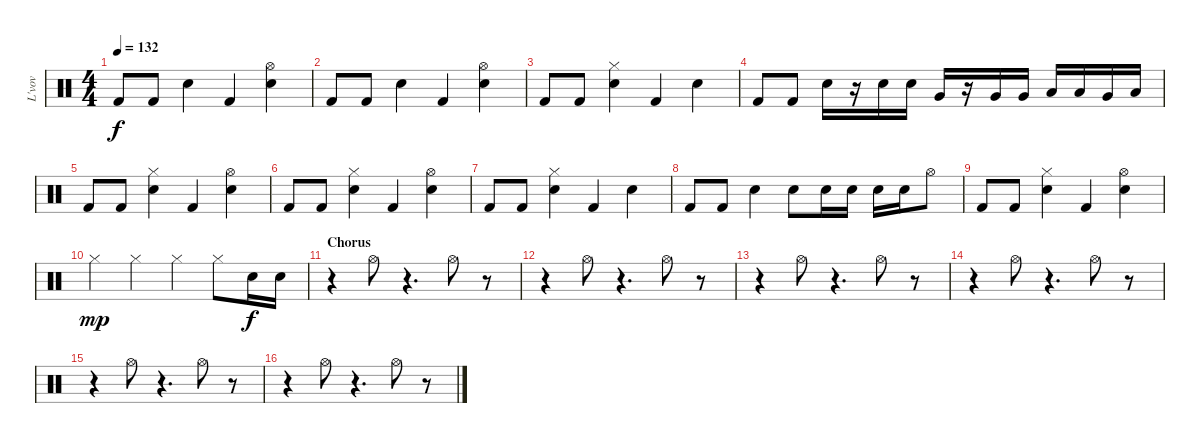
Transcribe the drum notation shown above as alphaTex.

\track ("L'vov" "L'vov") {instrument percussion}
\staff {score}
\articulation defaults
\ts (4 4)
\tempo 132
\clef neutral
\ks c "Kick (hit) 2".8{dy f} "Kick (hit) 2".8 "Snare (hit) 2".4 "Kick (hit) 2".4
("Snare (hit) 2" "Hi-Hat (open)").4 |
"Kick (hit) 2".8 "Kick (hit) 2".8 "Snare (hit) 2".4 "Kick (hit) 2".4 ("Snare (hit) 2" "Hi-Hat (open)").4 |
"Kick (hit) 2".8 "Kick (hit) 2".8 ("Snare (hit) 2" "Hi-Hat (closed)").4 "Kick (hit) 2".4 "Snare (hit) 2".4 |
"Kick (hit) 2".8 "Kick (hit) 2".8 "Snare (hit) 2".16 r.16 "Snare (hit) 2".16 "Snare (hit) 2".16 "Very Low Tom (hit)".16 r.16 "Very Low Tom (hit)".16 "Very Low Tom (hit)".16 "Low Floor Tom (hit)".16 "Low Floor Tom (hit)".16 "Very Low Tom (hit)".16 "Low Tom (hit)".16 |
"Kick (hit) 2".8 "Kick (hit) 2".8 ("Snare (hit) 2" "Hi-Hat (closed)").4 "Kick (hit) 2".4 ("Snare (hit) 2" "Hi-Hat (open)").4 |
"Kick (hit) 2".8 "Kick (hit) 2".8 ("Snare (hit) 2" "Hi-Hat (closed)").4 "Kick (hit) 2".4 ("Snare (hit) 2" "Hi-Hat (open)").4 |
"Kick (hit) 2".8 "Kick (hit) 2".8 ("Snare (hit) 2" "Hi-Hat (closed)").4 "Kick (hit) 2".4 "Snare (hit) 2".4 |
"Kick (hit) 2".8 "Kick (hit) 2".8 "Snare (hit) 2".4 "Snare (hit) 2".8 "Snare (hit) 2".16 "Snare (hit) 2".16 "Snare (hit) 2".16 "Snare (hit) 2".16 "Hi-Hat (open)".8 |
"Kick (hit) 2".8 "Kick (hit) 2".8 ("Snare (hit) 2" "Hi-Hat (closed)").4 "Kick (hit) 2".4 ("Snare (hit) 2" "Hi-Hat (open)").4 |
"Hi-Hat (closed)".4{dy mp} "Hi-Hat (closed)".4 "Hi-Hat (closed)".4 "Hi-Hat (closed)".8 "Snare (hit) 2".16{dy f} "Snare (hit) 2".16 |
\section ("" "Chorus")
r.4 "Hi-Hat (open)".8 r.4{d} "Hi-Hat (open)".8 r.8 |
r.4 "Hi-Hat (open)".8 r.4{d} "Hi-Hat (open)".8 r.8 |
r.4 "Hi-Hat (open)".8 r.4{d} "Hi-Hat (open)".8 r.8 |
r.4 "Hi-Hat (open)".8 r.4{d} "Hi-Hat (open)".8 r.8 |
r.4 "Hi-Hat (open)".8 r.4{d} "Hi-Hat (open)".8 r.8 |
r.4 "Hi-Hat (open)".8 r.4{d} "Hi-Hat (open)".8 r.8
